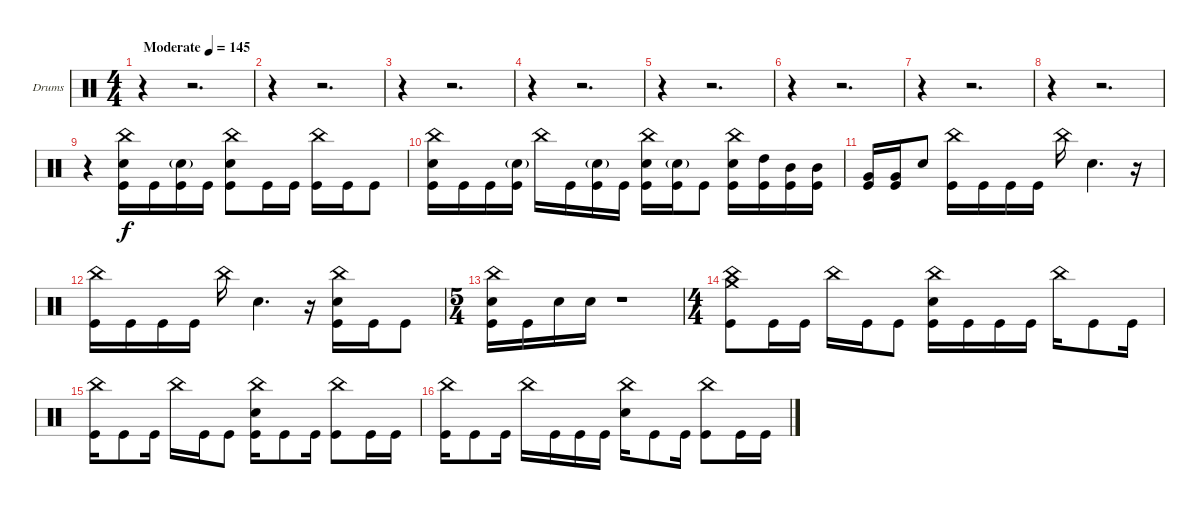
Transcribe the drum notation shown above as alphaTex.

\bracketExtendMode groupsimilarinstruments
\firstSystemTrackNameOrientation horizontal
\otherSystemsTrackNameOrientation horizontal
\track ("Drumkit" "Drums") {instrument percussion}
\staff {score}
\articulation defaults
\ts (4 4)
\beaming (8 2 2 2 2)
\tempo (145 "Moderate")
\clef neutral
\ks c
r.4{dy f} r.2{d} |
r.4 r.2{d} |
r.4 r.2{d} |
r.4 r.2{d} |
r.4 r.2{d} |
r.4 r.2{d} |
r.4 r.2{d} |
r.4 r.2{d} |
r.4 ("China (hit)" "Snare (hit) 2" "Kick (hit)").16 "Kick (hit)".16 ("Snare (hit) 2"{g} "Kick (hit)").16 "Kick (hit)".16 ("China (hit)" "Snare (hit) 2" "Kick (hit)").8 "Kick (hit)".16 "Kick (hit)".16 ("China (hit)" "Kick (hit)").16 "Kick (hit)".16 "Kick (hit)".8 |
("China (hit)" "Snare (hit) 2" "Kick (hit)").16 "Kick (hit)".16 "Kick (hit)".16 ("Snare (hit) 2"{g} "Kick (hit)").16 "China (hit)".16 "Kick (hit)".16 ("Snare (hit) 2"{g} "Kick (hit)").16 "Kick (hit)".16 ("China (hit)" "Snare (hit) 2" "Kick (hit)").16 ("Snare (hit) 2"{g} "Kick (hit)").16 "Kick (hit)".8 ("China (hit)" "Snare (hit) 2" "Kick (hit)").16 ("High Tom (hit)" "Kick (hit)").16 ("Mid Tom (hit)" "Kick (hit)").16 ("Mid Tom (hit)" "Kick (hit)").16 |
("Very Low Tom (hit)" "Kick (hit)").16 ("Very Low Tom (hit)" "Kick (hit)").16 "Snare (hit) 2".8 ("China (hit)" "Kick (hit)").16 "Kick (hit)".16 "Kick (hit)".16 "Kick (hit)".16 "China (hit)".16 "Snare (hit) 2".4{d} r.16 |
("China (hit)" "Kick (hit)").16 "Kick (hit)".16 "Kick (hit)".16 "Kick (hit)".16 "China (hit)".16 "Snare (hit) 2".4{d} r.16 ("China (hit)" "Snare (hit) 2" "Kick (hit)").16 "Kick (hit)".16 "Kick (hit)".8 |
\ts (5 4)
\beaming (8 2 2 2 4)
("China (hit)" "Snare (hit) 2" "Kick (hit)").16 "Kick (hit)".16 "Snare (hit) 2".16 "Snare (hit) 2".16 r.1 |
\ts (4 4)
\beaming (8 2 2 2 2)
("China (hit)" "Crash medium (hit)" "Kick (hit)").8 "Kick (hit)".16 "Kick (hit)".16 "China (hit)".16 "Kick (hit)".16 "Kick (hit)".8 ("China (hit)" "Snare (hit) 2" "Kick (hit)").16 "Kick (hit)".16 "Kick (hit)".16 "Kick (hit)".16 "China (hit)".16 "Kick (hit)".8 "Kick (hit)".16 |
("China (hit)" "Kick (hit)").16 "Kick (hit)".8 "Kick (hit)".16 "China (hit)".16 "Kick (hit)".16 "Kick (hit)".8 ("China (hit)" "Snare (hit) 2" "Kick (hit)").16 "Kick (hit)".8 "Kick (hit)".16 ("China (hit)" "Kick (hit)").8 "Kick (hit)".16 "Kick (hit)".16 |
("China (hit)" "Kick (hit)").16 "Kick (hit)".8 "Kick (hit)".16 "China (hit)".16 "Kick (hit)".16 "Kick (hit)".16 "Kick (hit)".16 ("China (hit)" "Snare (hit) 2").16 "Kick (hit)".8 "Kick (hit)".16 ("China (hit)" "Kick (hit)").8 "Kick (hit)".16 "Kick (hit)".16
